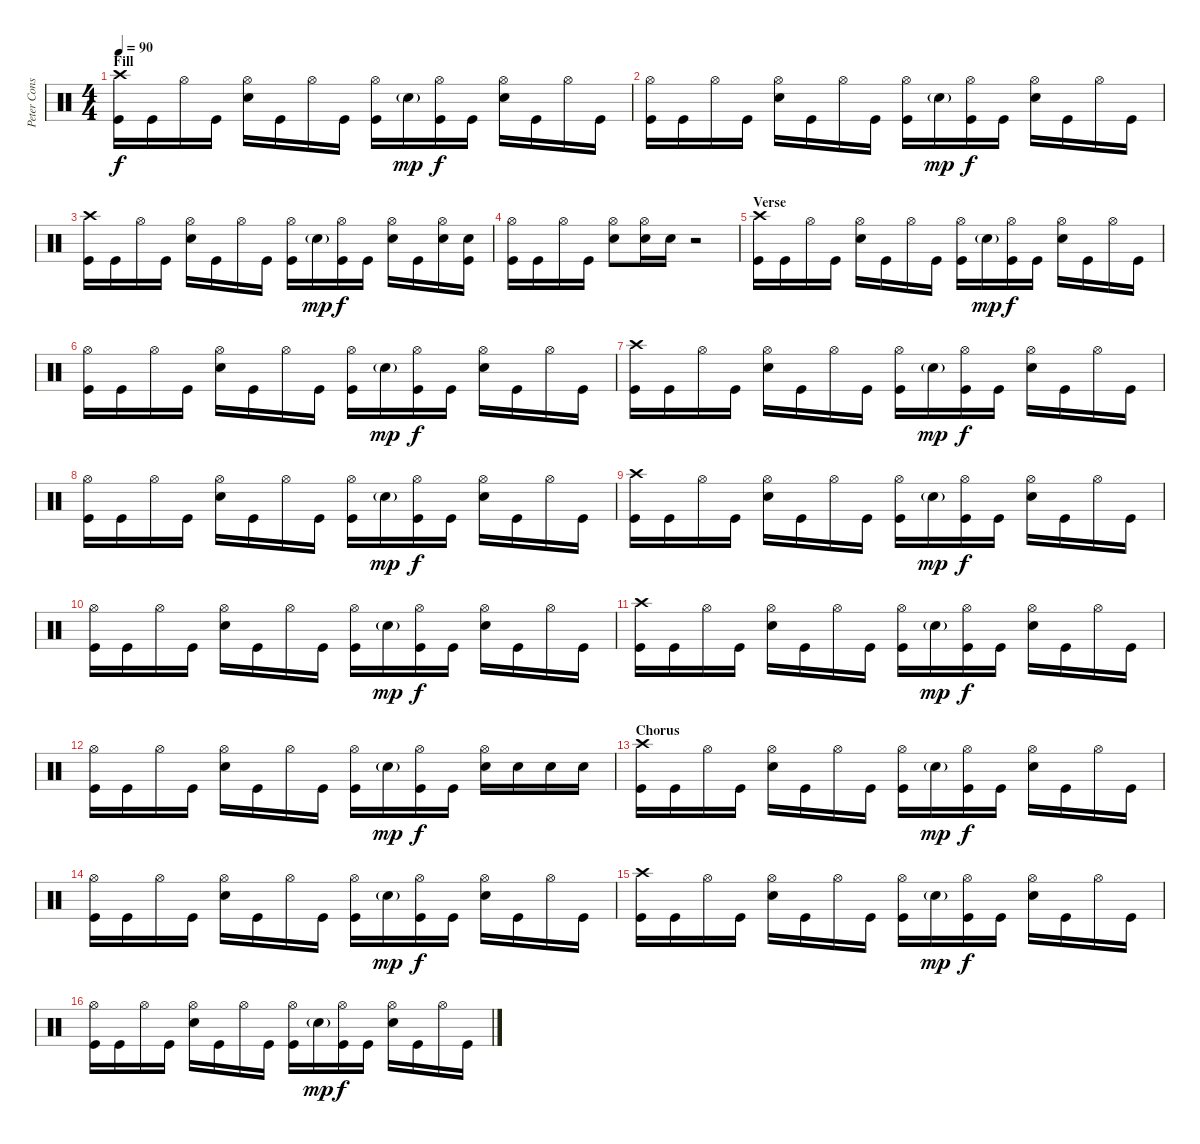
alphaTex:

\track ("Peter Constantinou" "Peter Cons") {instrument percussion}
\staff {score}
\articulation defaults
\ts (4 4)
\section ("" "Fill")
\tempo 90
\clef neutral
\ks c
("Crash high (hit)" "Kick (hit)").16{dy f} "Kick (hit)".16 "Hi-Hat (open)".16 "Kick (hit)".16 ("Hi-Hat (open)" "Snare (hit) 2").16 "Kick (hit)".16 "Hi-Hat (open)".16 "Kick (hit)".16 ("Hi-Hat (open)" "Kick (hit)").16 "Snare (hit) 2"{g}.16{dy mp} ("Hi-Hat (open)" "Kick (hit)").16{dy f} "Kick (hit)".16 ("Hi-Hat (open)" "Snare (hit) 2").16 "Kick (hit)".16 "Hi-Hat (open)".16 "Kick (hit)".16 |
("Hi-Hat (open)" "Kick (hit)").16 "Kick (hit)".16 "Hi-Hat (open)".16 "Kick (hit)".16 ("Hi-Hat (open)" "Snare (hit) 2").16 "Kick (hit)".16 "Hi-Hat (open)".16 "Kick (hit)".16 ("Hi-Hat (open)" "Kick (hit)").16 "Snare (hit) 2"{g}.16{dy mp} ("Hi-Hat (open)" "Kick (hit)").16{dy f} "Kick (hit)".16 ("Hi-Hat (open)" "Snare (hit) 2").16 "Kick (hit)".16 "Hi-Hat (open)".16 "Kick (hit)".16 |
("Crash high (hit)" "Kick (hit)").16 "Kick (hit)".16 "Hi-Hat (open)".16 "Kick (hit)".16 ("Hi-Hat (open)" "Snare (hit) 2").16 "Kick (hit)".16 "Hi-Hat (open)".16 "Kick (hit)".16 ("Hi-Hat (open)" "Kick (hit)").16 "Snare (hit) 2"{g}.16{dy mp} ("Hi-Hat (open)" "Kick (hit)").16{dy f} "Kick (hit)".16 ("Hi-Hat (open)" "Snare (hit) 2").16 "Kick (hit)".16 ("Hi-Hat (open)" "Snare (hit) 2").16 ("Snare (hit) 2" "Kick (hit)").16 |
("Hi-Hat (open)" "Kick (hit)").16 "Kick (hit)".16 "Hi-Hat (open)".16 "Kick (hit)".16 ("Hi-Hat (open)" "Snare (hit) 2").8 ("Hi-Hat (open)" "Snare (hit) 2").16 "Snare (hit) 2".16 r.2 |
\section ("" "Verse")
("Crash high (hit)" "Kick (hit)").16 "Kick (hit)".16 "Hi-Hat (open)".16 "Kick (hit)".16 ("Hi-Hat (open)" "Snare (hit) 2").16 "Kick (hit)".16 "Hi-Hat (open)".16 "Kick (hit)".16 ("Hi-Hat (open)" "Kick (hit)").16 "Snare (hit) 2"{g}.16{dy mp} ("Hi-Hat (open)" "Kick (hit)").16{dy f} "Kick (hit)".16 ("Hi-Hat (open)" "Snare (hit) 2").16 "Kick (hit)".16 "Hi-Hat (open)".16 "Kick (hit)".16 |
("Hi-Hat (open)" "Kick (hit)").16 "Kick (hit)".16 "Hi-Hat (open)".16 "Kick (hit)".16 ("Hi-Hat (open)" "Snare (hit) 2").16 "Kick (hit)".16 "Hi-Hat (open)".16 "Kick (hit)".16 ("Hi-Hat (open)" "Kick (hit)").16 "Snare (hit) 2"{g}.16{dy mp} ("Hi-Hat (open)" "Kick (hit)").16{dy f} "Kick (hit)".16 ("Hi-Hat (open)" "Snare (hit) 2").16 "Kick (hit)".16 "Hi-Hat (open)".16 "Kick (hit)".16 |
("Crash high (hit)" "Kick (hit)").16 "Kick (hit)".16 "Hi-Hat (open)".16 "Kick (hit)".16 ("Hi-Hat (open)" "Snare (hit) 2").16 "Kick (hit)".16 "Hi-Hat (open)".16 "Kick (hit)".16 ("Hi-Hat (open)" "Kick (hit)").16 "Snare (hit) 2"{g}.16{dy mp} ("Hi-Hat (open)" "Kick (hit)").16{dy f} "Kick (hit)".16 ("Hi-Hat (open)" "Snare (hit) 2").16 "Kick (hit)".16 "Hi-Hat (open)".16 "Kick (hit)".16 |
("Hi-Hat (open)" "Kick (hit)").16 "Kick (hit)".16 "Hi-Hat (open)".16 "Kick (hit)".16 ("Hi-Hat (open)" "Snare (hit) 2").16 "Kick (hit)".16 "Hi-Hat (open)".16 "Kick (hit)".16 ("Hi-Hat (open)" "Kick (hit)").16 "Snare (hit) 2"{g}.16{dy mp} ("Hi-Hat (open)" "Kick (hit)").16{dy f} "Kick (hit)".16 ("Hi-Hat (open)" "Snare (hit) 2").16 "Kick (hit)".16 "Hi-Hat (open)".16 "Kick (hit)".16 |
("Crash high (hit)" "Kick (hit)").16 "Kick (hit)".16 "Hi-Hat (open)".16 "Kick (hit)".16 ("Hi-Hat (open)" "Snare (hit) 2").16 "Kick (hit)".16 "Hi-Hat (open)".16 "Kick (hit)".16 ("Hi-Hat (open)" "Kick (hit)").16 "Snare (hit) 2"{g}.16{dy mp} ("Hi-Hat (open)" "Kick (hit)").16{dy f} "Kick (hit)".16 ("Hi-Hat (open)" "Snare (hit) 2").16 "Kick (hit)".16 "Hi-Hat (open)".16 "Kick (hit)".16 |
("Hi-Hat (open)" "Kick (hit)").16 "Kick (hit)".16 "Hi-Hat (open)".16 "Kick (hit)".16 ("Hi-Hat (open)" "Snare (hit) 2").16 "Kick (hit)".16 "Hi-Hat (open)".16 "Kick (hit)".16 ("Hi-Hat (open)" "Kick (hit)").16 "Snare (hit) 2"{g}.16{dy mp} ("Hi-Hat (open)" "Kick (hit)").16{dy f} "Kick (hit)".16 ("Hi-Hat (open)" "Snare (hit) 2").16 "Kick (hit)".16 "Hi-Hat (open)".16 "Kick (hit)".16 |
("Crash high (hit)" "Kick (hit)").16 "Kick (hit)".16 "Hi-Hat (open)".16 "Kick (hit)".16 ("Hi-Hat (open)" "Snare (hit) 2").16 "Kick (hit)".16 "Hi-Hat (open)".16 "Kick (hit)".16 ("Hi-Hat (open)" "Kick (hit)").16 "Snare (hit) 2"{g}.16{dy mp} ("Hi-Hat (open)" "Kick (hit)").16{dy f} "Kick (hit)".16 ("Hi-Hat (open)" "Snare (hit) 2").16 "Kick (hit)".16 "Hi-Hat (open)".16 "Kick (hit)".16 |
("Hi-Hat (open)" "Kick (hit)").16 "Kick (hit)".16 "Hi-Hat (open)".16 "Kick (hit)".16 ("Hi-Hat (open)" "Snare (hit) 2").16 "Kick (hit)".16 "Hi-Hat (open)".16 "Kick (hit)".16 ("Hi-Hat (open)" "Kick (hit)").16 "Snare (hit) 2"{g}.16{dy mp} ("Hi-Hat (open)" "Kick (hit)").16{dy f} "Kick (hit)".16 ("Hi-Hat (open)" "Snare (hit) 2").16 "Snare (hit) 2".16 "Snare (hit) 2".16 "Snare (hit) 2".16 |
\section ("" "Chorus")
("Crash high (hit)" "Kick (hit)").16 "Kick (hit)".16 "Hi-Hat (open)".16 "Kick (hit)".16 ("Hi-Hat (open)" "Snare (hit) 2").16 "Kick (hit)".16 "Hi-Hat (open)".16 "Kick (hit)".16 ("Hi-Hat (open)" "Kick (hit)").16 "Snare (hit) 2"{g}.16{dy mp} ("Hi-Hat (open)" "Kick (hit)").16{dy f} "Kick (hit)".16 ("Hi-Hat (open)" "Snare (hit) 2").16 "Kick (hit)".16 "Hi-Hat (open)".16 "Kick (hit)".16 |
("Hi-Hat (open)" "Kick (hit)").16 "Kick (hit)".16 "Hi-Hat (open)".16 "Kick (hit)".16 ("Hi-Hat (open)" "Snare (hit) 2").16 "Kick (hit)".16 "Hi-Hat (open)".16 "Kick (hit)".16 ("Hi-Hat (open)" "Kick (hit)").16 "Snare (hit) 2"{g}.16{dy mp} ("Hi-Hat (open)" "Kick (hit)").16{dy f} "Kick (hit)".16 ("Hi-Hat (open)" "Snare (hit) 2").16 "Kick (hit)".16 "Hi-Hat (open)".16 "Kick (hit)".16 |
("Crash high (hit)" "Kick (hit)").16 "Kick (hit)".16 "Hi-Hat (open)".16 "Kick (hit)".16 ("Hi-Hat (open)" "Snare (hit) 2").16 "Kick (hit)".16 "Hi-Hat (open)".16 "Kick (hit)".16 ("Hi-Hat (open)" "Kick (hit)").16 "Snare (hit) 2"{g}.16{dy mp} ("Hi-Hat (open)" "Kick (hit)").16{dy f} "Kick (hit)".16 ("Hi-Hat (open)" "Snare (hit) 2").16 "Kick (hit)".16 "Hi-Hat (open)".16 "Kick (hit)".16 |
("Hi-Hat (open)" "Kick (hit)").16 "Kick (hit)".16 "Hi-Hat (open)".16 "Kick (hit)".16 ("Hi-Hat (open)" "Snare (hit) 2").16 "Kick (hit)".16 "Hi-Hat (open)".16 "Kick (hit)".16 ("Hi-Hat (open)" "Kick (hit)").16 "Snare (hit) 2"{g}.16{dy mp} ("Hi-Hat (open)" "Kick (hit)").16{dy f} "Kick (hit)".16 ("Hi-Hat (open)" "Snare (hit) 2").16 "Kick (hit)".16 "Hi-Hat (open)".16 "Kick (hit)".16
